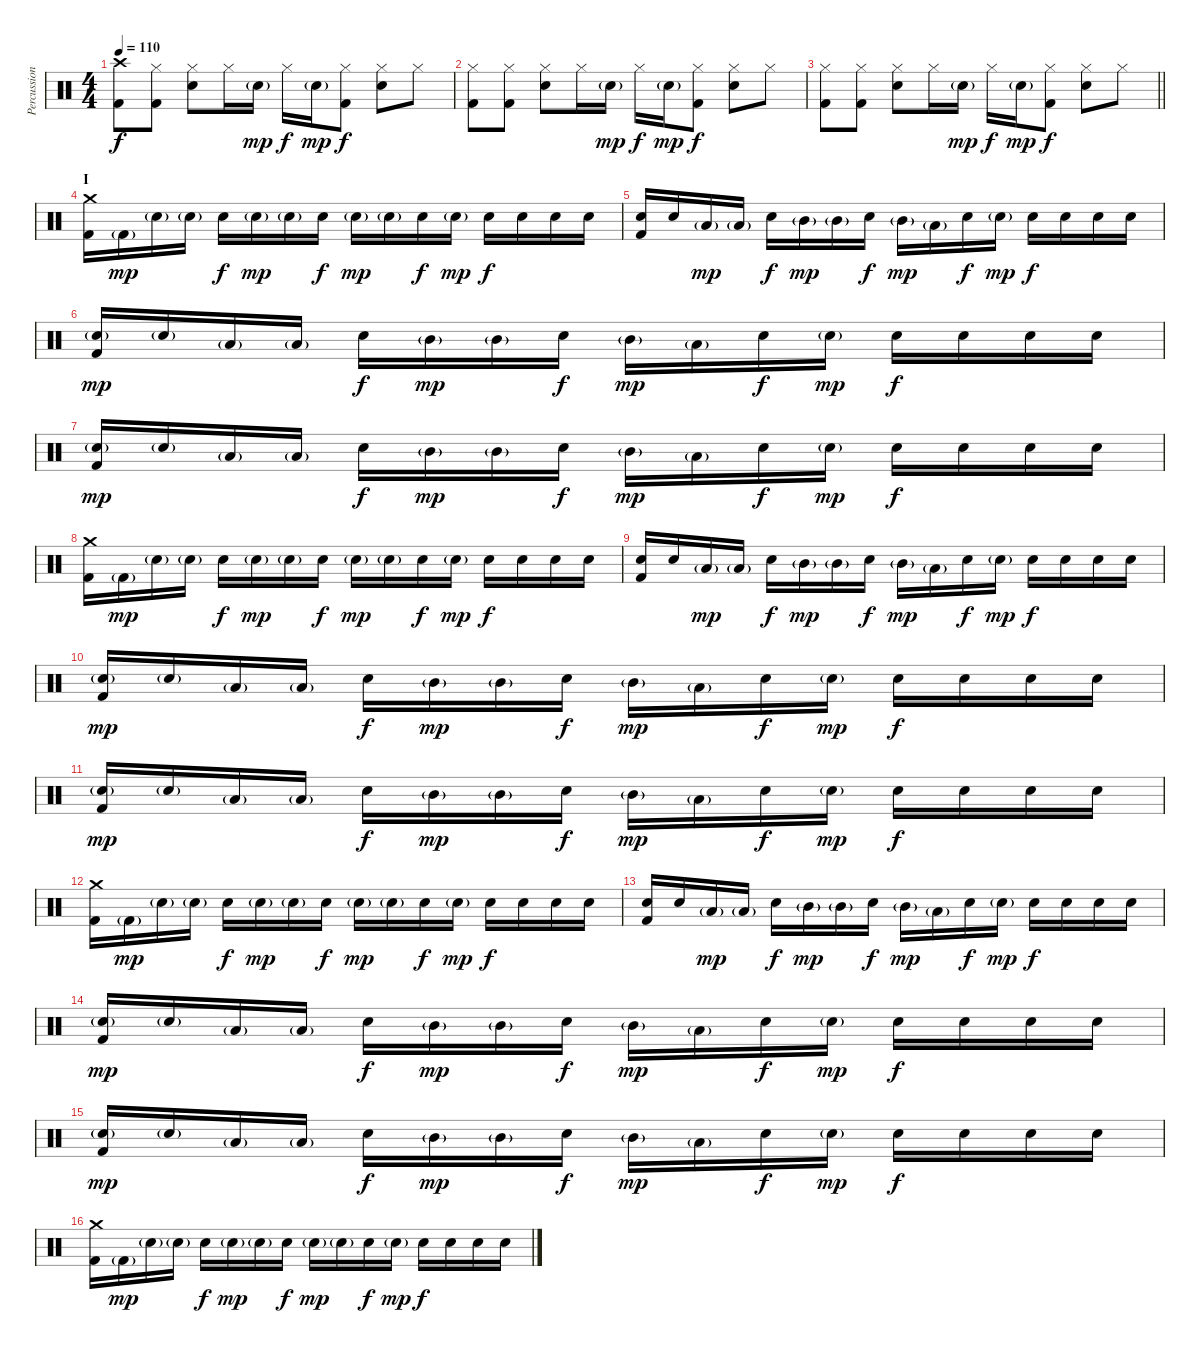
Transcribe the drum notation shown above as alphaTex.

\track ("Percussion" "Percussion") {instrument percussion}
\staff {score}
\articulation defaults
\ts (4 4)
\tempo 110
\clef neutral
\ks c
("Crash high (hit)" "Kick (hit) 2").8{dy f} ("Hi-Hat (closed)" "Kick (hit) 2").8 ("Hi-Hat (closed)" "Electric Snare (hit)").8 "Hi-Hat (closed)".16 "Electric Snare (hit)"{g}.16{dy mp} "Hi-Hat (closed)".16{dy f} "Electric Snare (hit)"{g}.16{dy mp} ("Hi-Hat (closed)" "Kick (hit) 2").8{dy f} ("Hi-Hat (closed)" "Electric Snare (hit)").8 "Hi-Hat (closed)".8 |
("Hi-Hat (closed)" "Kick (hit) 2").8 ("Hi-Hat (closed)" "Kick (hit) 2").8 ("Hi-Hat (closed)" "Electric Snare (hit)").8 "Hi-Hat (closed)".16 "Electric Snare (hit)"{g}.16{dy mp} "Hi-Hat (closed)".16{dy f} "Electric Snare (hit)"{g}.16{dy mp} ("Hi-Hat (closed)" "Kick (hit) 2").8{dy f} ("Hi-Hat (closed)" "Electric Snare (hit)").8 "Hi-Hat (closed)".8 |
\barLineRight lightlight
("Hi-Hat (closed)" "Kick (hit) 2").8 ("Hi-Hat (closed)" "Kick (hit) 2").8 ("Hi-Hat (closed)" "Electric Snare (hit)").8 "Hi-Hat (closed)".16 "Electric Snare (hit)"{g}.16{dy mp} "Hi-Hat (closed)".16{dy f} "Electric Snare (hit)"{g}.16{dy mp} ("Hi-Hat (closed)" "Kick (hit) 2").8{dy f} ("Hi-Hat (closed)" "Electric Snare (hit)").8 "Hi-Hat (closed)".8 |
\section ("" "I")
("Crash medium (hit)" "Kick (hit) 2").16 "Kick (hit) 2"{g}.16{dy mp} "Electric Snare (hit)"{g}.16 "Electric Snare (hit)"{g}.16 "Electric Snare (hit)".16{dy f} "Electric Snare (hit)"{g}.16{dy mp} "Electric Snare (hit)"{g}.16 "Electric Snare (hit)".16{dy f} "Electric Snare (hit)"{g}.16{dy mp} "Electric Snare (hit)"{g}.16 "Electric Snare (hit)".16{dy f} "Electric Snare (hit)"{g}.16{dy mp} "Electric Snare (hit)".16{dy f} "Electric Snare (hit)".16 "Electric Snare (hit)".16 "Electric Snare (hit)".16 |
("Electric Snare (hit)" "Kick (hit) 2").16 "Electric Snare (hit)".16 "Low Tom (hit)"{g}.16{dy mp} "Low Tom (hit)"{g}.16 "Electric Snare (hit)".16{dy f} "Mid Tom (hit)"{g}.16{dy mp} "Mid Tom (hit)"{g}.16 "Electric Snare (hit)".16{dy f} "Mid Tom (hit)"{g}.16{dy mp} "Low Tom (hit)"{g}.16 "Electric Snare (hit)".16{dy f} "Electric Snare (hit)"{g}.16{dy mp} "Electric Snare (hit)".16{dy f} "Electric Snare (hit)".16 "Electric Snare (hit)".16 "Electric Snare (hit)".16 |
("Electric Snare (hit)"{g} "Kick (hit) 2").16{dy mp} "Electric Snare (hit)"{g}.16 "Low Tom (hit)"{g}.16 "Low Tom (hit)"{g}.16 "Electric Snare (hit)".16{dy f} "Mid Tom (hit)"{g}.16{dy mp} "Mid Tom (hit)"{g}.16 "Electric Snare (hit)".16{dy f} "Mid Tom (hit)"{g}.16{dy mp} "Low Tom (hit)"{g}.16 "Electric Snare (hit)".16{dy f} "Electric Snare (hit)"{g}.16{dy mp} "Electric Snare (hit)".16{dy f} "Electric Snare (hit)".16 "Electric Snare (hit)".16 "Electric Snare (hit)".16 |
("Electric Snare (hit)"{g} "Kick (hit) 2").16{dy mp} "Electric Snare (hit)"{g}.16 "Low Tom (hit)"{g}.16 "Low Tom (hit)"{g}.16 "Electric Snare (hit)".16{dy f} "Mid Tom (hit)"{g}.16{dy mp} "Mid Tom (hit)"{g}.16 "Electric Snare (hit)".16{dy f} "Mid Tom (hit)"{g}.16{dy mp} "Low Tom (hit)"{g}.16 "Electric Snare (hit)".16{dy f} "Electric Snare (hit)"{g}.16{dy mp} "Electric Snare (hit)".16{dy f} "Electric Snare (hit)".16 "Electric Snare (hit)".16 "Electric Snare (hit)".16 |
("Crash medium (hit)" "Kick (hit) 2").16 "Kick (hit) 2"{g}.16{dy mp} "Electric Snare (hit)"{g}.16 "Electric Snare (hit)"{g}.16 "Electric Snare (hit)".16{dy f} "Electric Snare (hit)"{g}.16{dy mp} "Electric Snare (hit)"{g}.16 "Electric Snare (hit)".16{dy f} "Electric Snare (hit)"{g}.16{dy mp} "Electric Snare (hit)"{g}.16 "Electric Snare (hit)".16{dy f} "Electric Snare (hit)"{g}.16{dy mp} "Electric Snare (hit)".16{dy f} "Electric Snare (hit)".16 "Electric Snare (hit)".16 "Electric Snare (hit)".16 |
("Electric Snare (hit)" "Kick (hit) 2").16 "Electric Snare (hit)".16 "Low Tom (hit)"{g}.16{dy mp} "Low Tom (hit)"{g}.16 "Electric Snare (hit)".16{dy f} "Mid Tom (hit)"{g}.16{dy mp} "Mid Tom (hit)"{g}.16 "Electric Snare (hit)".16{dy f} "Mid Tom (hit)"{g}.16{dy mp} "Low Tom (hit)"{g}.16 "Electric Snare (hit)".16{dy f} "Electric Snare (hit)"{g}.16{dy mp} "Electric Snare (hit)".16{dy f} "Electric Snare (hit)".16 "Electric Snare (hit)".16 "Electric Snare (hit)".16 |
("Electric Snare (hit)"{g} "Kick (hit) 2").16{dy mp} "Electric Snare (hit)"{g}.16 "Low Tom (hit)"{g}.16 "Low Tom (hit)"{g}.16 "Electric Snare (hit)".16{dy f} "Mid Tom (hit)"{g}.16{dy mp} "Mid Tom (hit)"{g}.16 "Electric Snare (hit)".16{dy f} "Mid Tom (hit)"{g}.16{dy mp} "Low Tom (hit)"{g}.16 "Electric Snare (hit)".16{dy f} "Electric Snare (hit)"{g}.16{dy mp} "Electric Snare (hit)".16{dy f} "Electric Snare (hit)".16 "Electric Snare (hit)".16 "Electric Snare (hit)".16 |
("Electric Snare (hit)"{g} "Kick (hit) 2").16{dy mp} "Electric Snare (hit)"{g}.16 "Low Tom (hit)"{g}.16 "Low Tom (hit)"{g}.16 "Electric Snare (hit)".16{dy f} "Mid Tom (hit)"{g}.16{dy mp} "Mid Tom (hit)"{g}.16 "Electric Snare (hit)".16{dy f} "Mid Tom (hit)"{g}.16{dy mp} "Low Tom (hit)"{g}.16 "Electric Snare (hit)".16{dy f} "Electric Snare (hit)"{g}.16{dy mp} "Electric Snare (hit)".16{dy f} "Electric Snare (hit)".16 "Electric Snare (hit)".16 "Electric Snare (hit)".16 |
("Crash medium (hit)" "Kick (hit) 2").16 "Kick (hit) 2"{g}.16{dy mp} "Electric Snare (hit)"{g}.16 "Electric Snare (hit)"{g}.16 "Electric Snare (hit)".16{dy f} "Electric Snare (hit)"{g}.16{dy mp} "Electric Snare (hit)"{g}.16 "Electric Snare (hit)".16{dy f} "Electric Snare (hit)"{g}.16{dy mp} "Electric Snare (hit)"{g}.16 "Electric Snare (hit)".16{dy f} "Electric Snare (hit)"{g}.16{dy mp} "Electric Snare (hit)".16{dy f} "Electric Snare (hit)".16 "Electric Snare (hit)".16 "Electric Snare (hit)".16 |
("Electric Snare (hit)" "Kick (hit) 2").16 "Electric Snare (hit)".16 "Low Tom (hit)"{g}.16{dy mp} "Low Tom (hit)"{g}.16 "Electric Snare (hit)".16{dy f} "Mid Tom (hit)"{g}.16{dy mp} "Mid Tom (hit)"{g}.16 "Electric Snare (hit)".16{dy f} "Mid Tom (hit)"{g}.16{dy mp} "Low Tom (hit)"{g}.16 "Electric Snare (hit)".16{dy f} "Electric Snare (hit)"{g}.16{dy mp} "Electric Snare (hit)".16{dy f} "Electric Snare (hit)".16 "Electric Snare (hit)".16 "Electric Snare (hit)".16 |
("Electric Snare (hit)"{g} "Kick (hit) 2").16{dy mp} "Electric Snare (hit)"{g}.16 "Low Tom (hit)"{g}.16 "Low Tom (hit)"{g}.16 "Electric Snare (hit)".16{dy f} "Mid Tom (hit)"{g}.16{dy mp} "Mid Tom (hit)"{g}.16 "Electric Snare (hit)".16{dy f} "Mid Tom (hit)"{g}.16{dy mp} "Low Tom (hit)"{g}.16 "Electric Snare (hit)".16{dy f} "Electric Snare (hit)"{g}.16{dy mp} "Electric Snare (hit)".16{dy f} "Electric Snare (hit)".16 "Electric Snare (hit)".16 "Electric Snare (hit)".16 |
("Electric Snare (hit)"{g} "Kick (hit) 2").16{dy mp} "Electric Snare (hit)"{g}.16 "Low Tom (hit)"{g}.16 "Low Tom (hit)"{g}.16 "Electric Snare (hit)".16{dy f} "Mid Tom (hit)"{g}.16{dy mp} "Mid Tom (hit)"{g}.16 "Electric Snare (hit)".16{dy f} "Mid Tom (hit)"{g}.16{dy mp} "Low Tom (hit)"{g}.16 "Electric Snare (hit)".16{dy f} "Electric Snare (hit)"{g}.16{dy mp} "Electric Snare (hit)".16{dy f} "Electric Snare (hit)".16 "Electric Snare (hit)".16 "Electric Snare (hit)".16 |
("Crash medium (hit)" "Kick (hit) 2").16 "Kick (hit) 2"{g}.16{dy mp} "Electric Snare (hit)"{g}.16 "Electric Snare (hit)"{g}.16 "Electric Snare (hit)".16{dy f} "Electric Snare (hit)"{g}.16{dy mp} "Electric Snare (hit)"{g}.16 "Electric Snare (hit)".16{dy f} "Electric Snare (hit)"{g}.16{dy mp} "Electric Snare (hit)"{g}.16 "Electric Snare (hit)".16{dy f} "Electric Snare (hit)"{g}.16{dy mp} "Electric Snare (hit)".16{dy f} "Electric Snare (hit)".16 "Electric Snare (hit)".16 "Electric Snare (hit)".16
